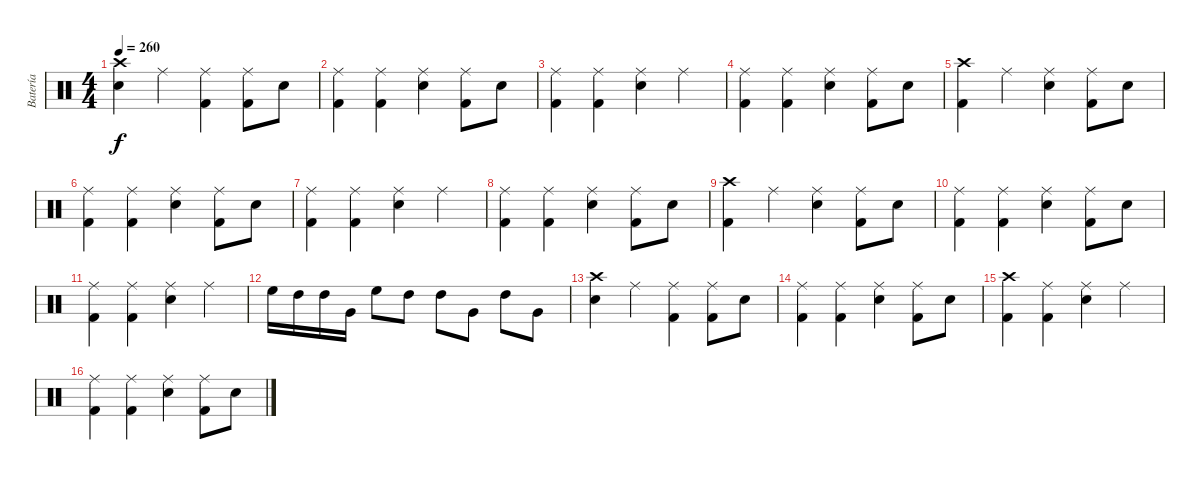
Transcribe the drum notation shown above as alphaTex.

\track ("Batería" "Batería") {instrument percussion}
\staff {score}
\articulation defaults
\ts (4 4)
\tempo 260
\clef neutral
\ks c
("Snare (hit) 2" "Crash high (hit)").4{dy f} "Ride (middle)".4 ("Kick (hit) 2" "Ride (middle)").4 ("Kick (hit) 2" "Ride (middle)").8 "Snare (hit) 2".8 |
("Kick (hit) 2" "Ride (middle)").4 ("Kick (hit) 2" "Ride (middle)").4 ("Snare (hit) 2" "Ride (middle)").4 ("Kick (hit) 2" "Ride (middle)").8 "Snare (hit) 2".8 |
("Kick (hit) 2" "Ride (middle)").4 ("Kick (hit) 2" "Ride (middle)").4 ("Snare (hit) 2" "Ride (middle)").4 "Ride (middle)".4 |
("Kick (hit) 2" "Ride (middle)").4 ("Kick (hit) 2" "Ride (middle)").4 ("Snare (hit) 2" "Ride (middle)").4 ("Kick (hit) 2" "Ride (middle)").8 "Snare (hit) 2".8 |
("Kick (hit) 2" "Crash high (hit)").4 "Ride (middle)".4 ("Snare (hit) 2" "Ride (middle)").4 ("Kick (hit) 2" "Ride (middle)").8 "Snare (hit) 2".8 |
("Kick (hit) 2" "Ride (middle)").4 ("Kick (hit) 2" "Ride (middle)").4 ("Snare (hit) 2" "Ride (middle)").4 ("Kick (hit) 2" "Ride (middle)").8 "Snare (hit) 2".8 |
("Kick (hit) 2" "Ride (middle)").4 ("Kick (hit) 2" "Ride (middle)").4 ("Snare (hit) 2" "Ride (middle)").4 "Ride (middle)".4 |
("Kick (hit) 2" "Ride (middle)").4 ("Kick (hit) 2" "Ride (middle)").4 ("Snare (hit) 2" "Ride (middle)").4 ("Kick (hit) 2" "Ride (middle)").8 "Snare (hit) 2".8 |
("Kick (hit) 2" "Crash high (hit)").4 "Ride (middle)".4 ("Snare (hit) 2" "Ride (middle)").4 ("Kick (hit) 2" "Ride (middle)").8 "Snare (hit) 2".8 |
("Kick (hit) 2" "Ride (middle)").4 ("Kick (hit) 2" "Ride (middle)").4 ("Snare (hit) 2" "Ride (middle)").4 ("Kick (hit) 2" "Ride (middle)").8 "Snare (hit) 2".8 |
("Kick (hit) 2" "Ride (middle)").4 ("Kick (hit) 2" "Ride (middle)").4 ("Snare (hit) 2" "Ride (middle)").4 "Ride (middle)".4 |
"High Floor Tom (hit)".16 "High Tom (hit)".16 "High Tom (hit)".16 "Very Low Tom (hit)".16 "High Floor Tom (hit)".8 "High Tom (hit)".8 "High Tom (hit)".8 "Very Low Tom (hit)".8 "High Tom (hit)".8 "Very Low Tom (hit)".8 |
("Snare (hit) 2" "Crash high (hit)").4 "Ride (middle)".4 ("Kick (hit) 2" "Ride (middle)").4 ("Kick (hit) 2" "Ride (middle)").8 "Snare (hit) 2".8 |
("Kick (hit) 2" "Ride (middle)").4 ("Kick (hit) 2" "Ride (middle)").4 ("Snare (hit) 2" "Ride (middle)").4 ("Kick (hit) 2" "Ride (middle)").8 "Snare (hit) 2".8 |
("Kick (hit) 2" "Crash high (hit)").4 ("Kick (hit) 2" "Ride (middle)").4 ("Snare (hit) 2" "Ride (middle)").4 "Ride (middle)".4 |
("Kick (hit) 2" "Ride (middle)").4 ("Kick (hit) 2" "Ride (middle)").4 ("Snare (hit) 2" "Ride (middle)").4 ("Kick (hit) 2" "Ride (middle)").8 "Snare (hit) 2".8
